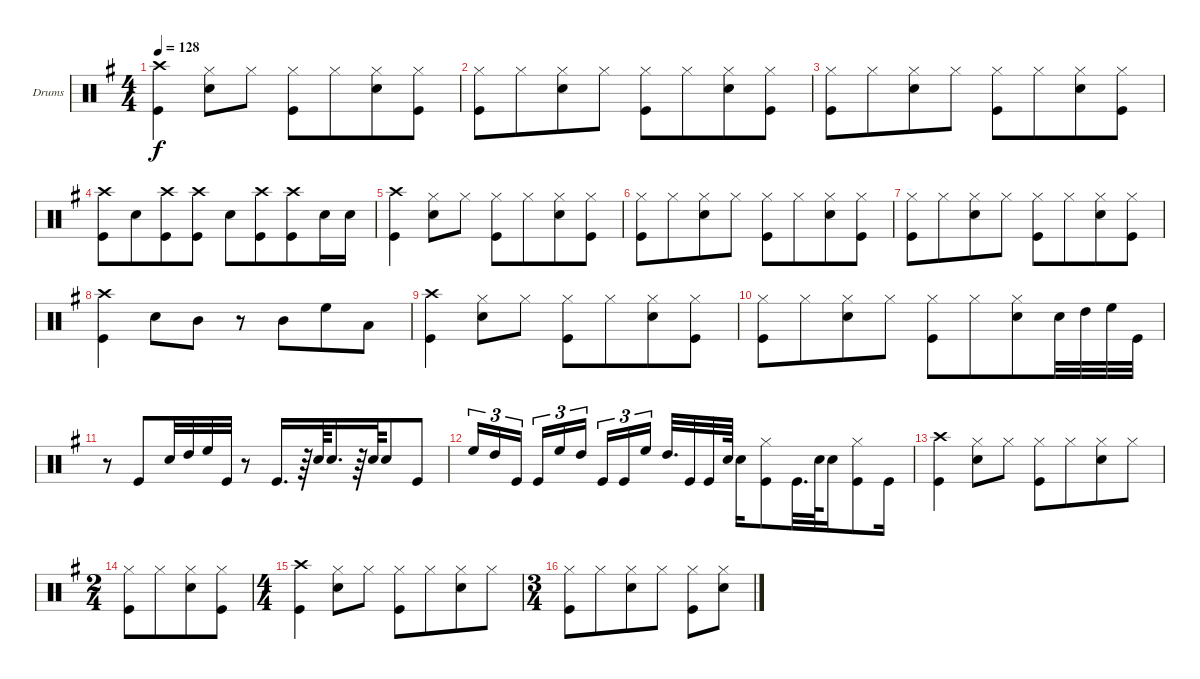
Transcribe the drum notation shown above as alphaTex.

\bracketExtendMode groupsimilarinstruments
\firstSystemTrackNameOrientation horizontal
\otherSystemsTrackNameOrientation horizontal
\track ("Drumkit" "Drums") {instrument percussion}
\staff {score}
\articulation defaults
\ts (4 4)
\beaming (8 4 4 6)
\tempo 128
\clef neutral
\scale
1.07314
\ks g
("Kick (hit)" "Crash high (hit)").4{dy f} ("Snare (hit) 2" "Hi-Hat (closed)").8 "Hi-Hat (closed)".8 ("Hi-Hat (closed)" "Kick (hit)").8 "Hi-Hat (closed)".8 ("Snare (hit) 2" "Hi-Hat (closed)").8 ("Kick (hit)" "Hi-Hat (closed)").8 |
\scale
0.92686 ("Hi-Hat (closed)" "Kick (hit)").8 "Hi-Hat (closed)".8 ("Snare (hit) 2" "Hi-Hat (closed)").8 "Hi-Hat (closed)".8 ("Hi-Hat (closed)" "Kick (hit)").8 "Hi-Hat (closed)".8 ("Snare (hit) 2" "Hi-Hat (closed)").8 ("Kick (hit)" "Hi-Hat (closed)").8 |
\scale
1.04288 ("Hi-Hat (closed)" "Kick (hit)").8 "Hi-Hat (closed)".8 ("Snare (hit) 2" "Hi-Hat (closed)").8 "Hi-Hat (closed)".8 ("Hi-Hat (closed)" "Kick (hit)").8 "Hi-Hat (closed)".8 ("Snare (hit) 2" "Hi-Hat (closed)").8 ("Kick (hit)" "Hi-Hat (closed)").8 |
\scale
0.957125 ("Crash high (hit)" "Kick (hit)").8 "Snare (hit) 2".8 ("Kick (hit)" "Crash high (hit)").8 ("Kick (hit)" "Crash high (hit)").8 "Snare (hit) 2".8 ("Crash high (hit)" "Kick (hit)").8 ("Crash high (hit)" "Kick (hit)").8 "Snare (hit) 2".16 "Snare (hit) 2".16 |
\scale
1.04288 ("Kick (hit)" "Crash high (hit)").4 ("Snare (hit) 2" "Hi-Hat (closed)").8 "Hi-Hat (closed)".8 ("Hi-Hat (closed)" "Kick (hit)").8 "Hi-Hat (closed)".8 ("Snare (hit) 2" "Hi-Hat (closed)").8 ("Kick (hit)" "Hi-Hat (closed)").8 |
\scale
0.957125 ("Hi-Hat (closed)" "Kick (hit)").8 "Hi-Hat (closed)".8 ("Snare (hit) 2" "Hi-Hat (closed)").8 "Hi-Hat (closed)".8 ("Hi-Hat (closed)" "Kick (hit)").8 "Hi-Hat (closed)".8 ("Snare (hit) 2" "Hi-Hat (closed)").8 ("Kick (hit)" "Hi-Hat (closed)").8 |
\scale
1.04288 ("Hi-Hat (closed)" "Kick (hit)").8 "Hi-Hat (closed)".8 ("Snare (hit) 2" "Hi-Hat (closed)").8 "Hi-Hat (closed)".8 ("Hi-Hat (closed)" "Kick (hit)").8 "Hi-Hat (closed)".8 ("Snare (hit) 2" "Hi-Hat (closed)").8 ("Kick (hit)" "Hi-Hat (closed)").8 |
\scale
0.957125 ("Kick (hit)" "Crash high (hit)").4 "Snare (hit) 2".8 "Mid Tom (hit)".8 r.8 "Mid Tom (hit)".8 "High Floor Tom (hit)".8 "Low Tom (hit)".8 |
\scale
1.04288 ("Kick (hit)" "Crash high (hit)").4 ("Snare (hit) 2" "Hi-Hat (closed)").8 "Hi-Hat (closed)".8 ("Hi-Hat (closed)" "Kick (hit)").8 "Hi-Hat (closed)".8 ("Snare (hit) 2" "Hi-Hat (closed)").8 ("Kick (hit)" "Hi-Hat (closed)").8 |
\scale
0.957125 ("Hi-Hat (closed)" "Kick (hit)").8 "Hi-Hat (closed)".8 ("Snare (hit) 2" "Hi-Hat (closed)").8 "Hi-Hat (closed)".8 ("Hi-Hat (closed)" "Kick (hit)").8 "Hi-Hat (closed)".8 ("Snare (hit) 2" "Hi-Hat (closed)").8 "Snare (hit) 2".32 "High Tom (hit)".32 "High Floor Tom (hit)".32 "Kick (hit)".32 |
\scale
1.04288 r.8 "Kick (hit)".8 "Snare (hit) 2".32 "High Tom (hit)".32 "High Floor Tom (hit)".32 "Kick (hit)".32 r.8 "Kick (hit)".16{d} r.64 "Snare (hit) 2".64 "Snare (hit) 2".16{d} r.64 "Snare (hit) 2".64 "Snare (hit) 2".8 "Kick (hit)".8 |
\scale
0.957125 "High Floor Tom (hit)".16{tu (3 2)} "High Tom (hit)".16{tu (3 2)} "Kick (hit)".16{tu (3 2)} "Kick (hit)".16{tu (3 2)} "High Floor Tom (hit)".16{tu (3 2)} "High Tom (hit)".16{tu (3 2)} "Kick (hit)".16{tu (3 2)} "Kick (hit)".16{tu (3 2)} "High Floor Tom (hit)".16{tu (3 2)} "High Tom (hit)".32{d} "Kick (hit)".32 "Kick (hit)".32 "Snare (hit) 2".64 "Snare (hit) 2".16 ("Hi-Hat (closed)" "Kick (hit)").8 "Kick (hit)".32{d} "Snare (hit) 2".64 "Snare (hit) 2".16 ("Hi-Hat (closed)" "Kick (hit)").8 "Kick (hit)".16 |
\scale
1.04288 ("Kick (hit)" "Crash high (hit)").4 ("Hi-Hat (closed)" "Snare (hit) 2").8 "Hi-Hat (closed)".8 ("Hi-Hat (closed)" "Kick (hit)").8 "Hi-Hat (closed)".8 ("Snare (hit) 2" "Hi-Hat (closed)").8 "Hi-Hat (closed)".8 |
\ts (2 4)
\beaming (8 4 4 6)
\scale
0.957125 ("Kick (hit)" "Hi-Hat (closed)").8 "Hi-Hat (closed)".8 ("Snare (hit) 2" "Hi-Hat (closed)").8 ("Kick (hit)" "Hi-Hat (closed)").8 |
\ts (4 4)
\beaming (8 4 4 6)
\scale
1.07314 ("Kick (hit)" "Crash high (hit)").4 ("Hi-Hat (closed)" "Snare (hit) 2").8 "Hi-Hat (closed)".8 ("Hi-Hat (closed)" "Kick (hit)").8 "Hi-Hat (closed)".8 ("Snare (hit) 2" "Hi-Hat (closed)").8 "Hi-Hat (closed)".8 |
\ts (3 4)
\beaming (8 4 4 6)
\scale
0.92686 ("Kick (hit)" "Hi-Hat (closed)").8 "Hi-Hat (closed)".8 ("Snare (hit) 2" "Hi-Hat (closed)").8 "Hi-Hat (closed)".8 ("Kick (hit)" "Hi-Hat (closed)").8 ("Snare (hit) 2" "Hi-Hat (closed)").8
